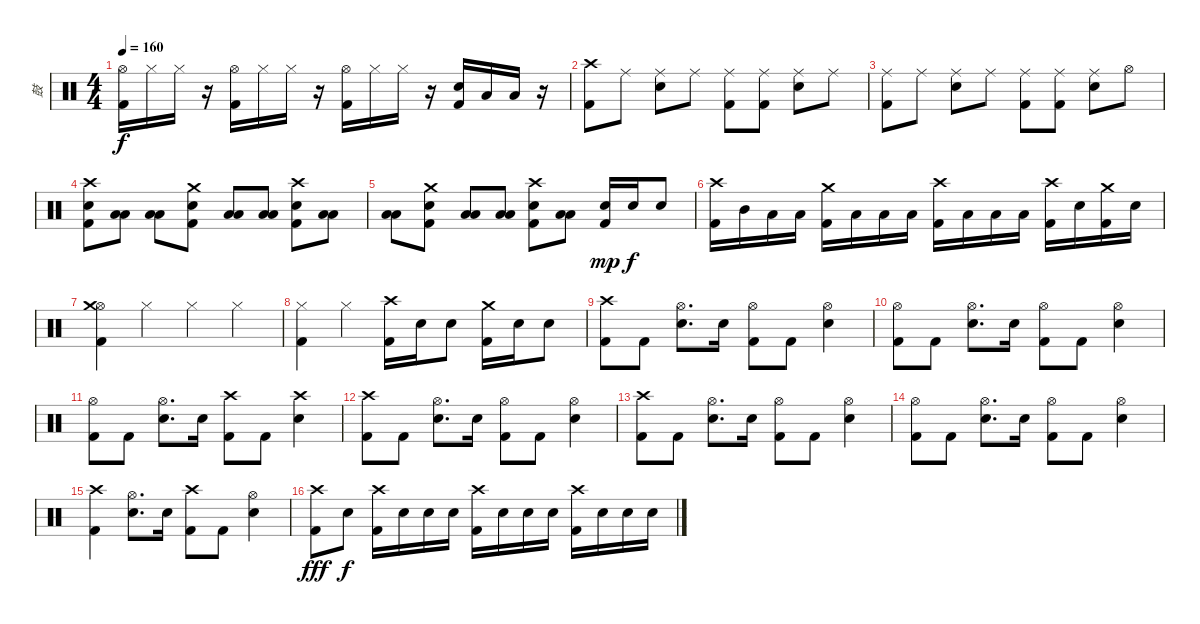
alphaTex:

\track ("鼓" "鼓") {instrument percussion}
\staff {score}
\articulation defaults
\ts (4 4)
\tempo 160
\clef neutral
\ks c
("Hi-Hat (open)" "Kick (hit) 2").16{dy f} "Hi-Hat (closed)".16 "Hi-Hat (closed)".16 r.16 ("Hi-Hat (open)" "Kick (hit) 2").16 "Hi-Hat (closed)".16 "Hi-Hat (closed)".16 r.16 ("Hi-Hat (open)" "Kick (hit) 2").16 "Hi-Hat (closed)".16 "Hi-Hat (closed)".16 r.16 ("Snare (hit) 2" "Kick (hit) 2").16 "Low Tom (hit)".16 "Low Floor Tom (hit)".16 r.16 |
("Crash high (hit)" "Kick (hit) 2").8 "Ride (middle)".8 ("Ride (middle)" "Snare (hit) 2").8 "Ride (middle)".8 ("Ride (middle)" "Kick (hit) 2").8 ("Ride (middle)" "Kick (hit) 2").8 ("Ride (middle)" "Snare (hit) 2").8 "Ride (middle)".8 |
("Ride (middle)" "Kick (hit) 2").8 "Ride (middle)".8 ("Ride (middle)" "Snare (hit) 2").8 "Ride (middle)".8 ("Ride (middle)" "Kick (hit) 2").8 ("Ride (middle)" "Kick (hit) 2").8 ("Ride (middle)" "Snare (hit) 2").8 "Hi-Hat (open)".8 |
("Crash high (hit)" "Snare (hit) 2" "Kick (hit) 2").8 ("Low Floor Tom (hit)" "Low Tom (hit)").8 ("Low Floor Tom (hit)" "Low Tom (hit)").8 ("Crash medium (hit)" "Snare (hit) 2" "Kick (hit) 2").8 ("Low Floor Tom (hit)" "Low Tom (hit)").8 ("Low Floor Tom (hit)" "Low Tom (hit)").8 ("Crash high (hit)" "Snare (hit) 2" "Kick (hit) 2").8 ("Low Floor Tom (hit)" "Low Tom (hit)").8 |
("Low Floor Tom (hit)" "Low Tom (hit)").8 ("Crash medium (hit)" "Snare (hit) 2" "Kick (hit) 2").8 ("Low Floor Tom (hit)" "Low Tom (hit)").8 ("Low Floor Tom (hit)" "Low Tom (hit)").8 ("Crash high (hit)" "Snare (hit) 2" "Kick (hit) 2").8 ("Low Floor Tom (hit)" "Low Tom (hit)").8 ("Snare (hit) 2" "Kick (hit) 2").16{dy mp} "Snare (hit) 2".16{dy f} "Snare (hit) 2".8 |
("Crash high (hit)" "Kick (hit) 2").16 "Mid Tom (hit)".16 "Low Tom (hit)".16 "Low Tom (hit)".16 ("Crash medium (hit)" "Kick (hit) 2").16 "Low Tom (hit)".16 "Low Floor Tom (hit)".16 "Low Floor Tom (hit)".16 ("Crash high (hit)" "Kick (hit) 2").16 "Low Floor Tom (hit)".16 "Low Floor Tom (hit)".16 "Low Floor Tom (hit)".16 ("Crash high (hit)" "Kick (hit) 2").16 "Snare (hit) 2".16 ("Crash medium (hit)" "Kick (hit) 2").16 "Snare (hit) 2".16 |
("Hi-Hat (open)" "Crash medium (hit)" "Kick (hit) 2").4 "Hi-Hat (closed)".4 "Hi-Hat (closed)".4 "Hi-Hat (closed)".4 |
("Hi-Hat (closed)" "Kick (hit) 2").4 "Hi-Hat (closed)".4 ("Crash high (hit)" "Kick (hit) 2").16 "Snare (hit) 2".16 "Snare (hit) 2".8 ("Crash medium (hit)" "Kick (hit) 2").16 "Snare (hit) 2".16 "Snare (hit) 2".8 |
("Crash high (hit)" "Kick (hit) 2").8 "Kick (hit) 2".8 ("Hi-Hat (open)" "Snare (hit) 2").8{d} "Snare (hit) 2".16 ("Hi-Hat (open)" "Kick (hit) 2").8 "Kick (hit) 2".8 ("Hi-Hat (open)" "Snare (hit) 2").4 |
("Hi-Hat (open)" "Kick (hit) 2").8 "Kick (hit) 2".8 ("Hi-Hat (open)" "Snare (hit) 2").8{d} "Snare (hit) 2".16 ("Hi-Hat (open)" "Kick (hit) 2").8 "Kick (hit) 2".8 ("Hi-Hat (open)" "Snare (hit) 2").4 |
("Hi-Hat (open)" "Kick (hit) 2").8 "Kick (hit) 2".8 ("Hi-Hat (open)" "Snare (hit) 2").8{d} "Snare (hit) 2".16 ("Crash high (hit)" "Kick (hit) 2").8 "Kick (hit) 2".8 ("Crash high (hit)" "Snare (hit) 2").4 |
("Crash high (hit)" "Kick (hit) 2").8 "Kick (hit) 2".8 ("Hi-Hat (open)" "Snare (hit) 2").8{d} "Snare (hit) 2".16 ("Hi-Hat (open)" "Kick (hit) 2").8 "Kick (hit) 2".8 ("Hi-Hat (open)" "Snare (hit) 2").4 |
("Crash high (hit)" "Kick (hit) 2").8 "Kick (hit) 2".8 ("Hi-Hat (open)" "Snare (hit) 2").8{d} "Snare (hit) 2".16 ("Hi-Hat (open)" "Kick (hit) 2").8 "Kick (hit) 2".8 ("Hi-Hat (open)" "Snare (hit) 2").4 |
("Hi-Hat (open)" "Kick (hit) 2").8 "Kick (hit) 2".8 ("Hi-Hat (open)" "Snare (hit) 2").8{d} "Snare (hit) 2".16 ("Hi-Hat (open)" "Kick (hit) 2").8 "Kick (hit) 2".8 ("Hi-Hat (open)" "Snare (hit) 2").4 |
("Crash high (hit)" "Kick (hit) 2").4 ("Hi-Hat (open)" "Snare (hit) 2").8{d} "Snare (hit) 2".16 ("Crash high (hit)" "Kick (hit) 2").8 "Kick (hit) 2".8 ("Hi-Hat (open)" "Snare (hit) 2").4 |
("Crash high (hit)" "Kick (hit) 2").8{dy fff} "Snare (hit) 2".8{dy f} ("Crash high (hit)" "Kick (hit) 2").16 "Snare (hit) 2".16 "Snare (hit) 2".16 "Snare (hit) 2".16 ("Crash high (hit)" "Kick (hit) 2").16 "Snare (hit) 2".16 "Snare (hit) 2".16 "Snare (hit) 2".16 ("Crash high (hit)" "Kick (hit) 2").16 "Snare (hit) 2".16 "Snare (hit) 2".16 "Snare (hit) 2".16
